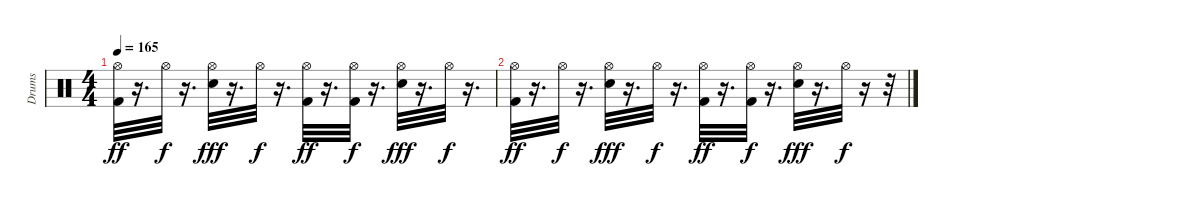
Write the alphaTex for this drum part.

\track ("Drums" "Drums") {instrument percussion}
\staff {score}
\articulation defaults
\ts (4 4)
\tempo 165
\clef neutral
\ks c
("Kick (hit) 2" "Hi-Hat (open)").32{dy ff} r.16{d} "Hi-Hat (open)".32{dy f} r.16{d} ("Snare (hit) 2" "Hi-Hat (open)").32{dy fff} r.16{d} "Hi-Hat (open)".32{dy f} r.16{d} ("Kick (hit) 2" "Hi-Hat (open)").32{dy ff} r.16{d} ("Kick (hit) 2" "Hi-Hat (open)").32{dy f} r.16{d} ("Snare (hit) 2" "Hi-Hat (open)").32{dy fff} r.16{d} "Hi-Hat (open)".32{dy f} r.16{d} |
("Kick (hit) 2" "Hi-Hat (open)").32{dy ff} r.16{d} "Hi-Hat (open)".32{dy f} r.16{d} ("Snare (hit) 2" "Hi-Hat (open)").32{dy fff} r.16{d} "Hi-Hat (open)".32{dy f} r.16{d} ("Kick (hit) 2" "Hi-Hat (open)").32{dy ff} r.16{d} ("Kick (hit) 2" "Hi-Hat (open)").32{dy f} r.16{d} ("Snare (hit) 2" "Hi-Hat (open)").32{dy fff} r.16{d} "Hi-Hat (open)".32{dy f} r.16 r.32
